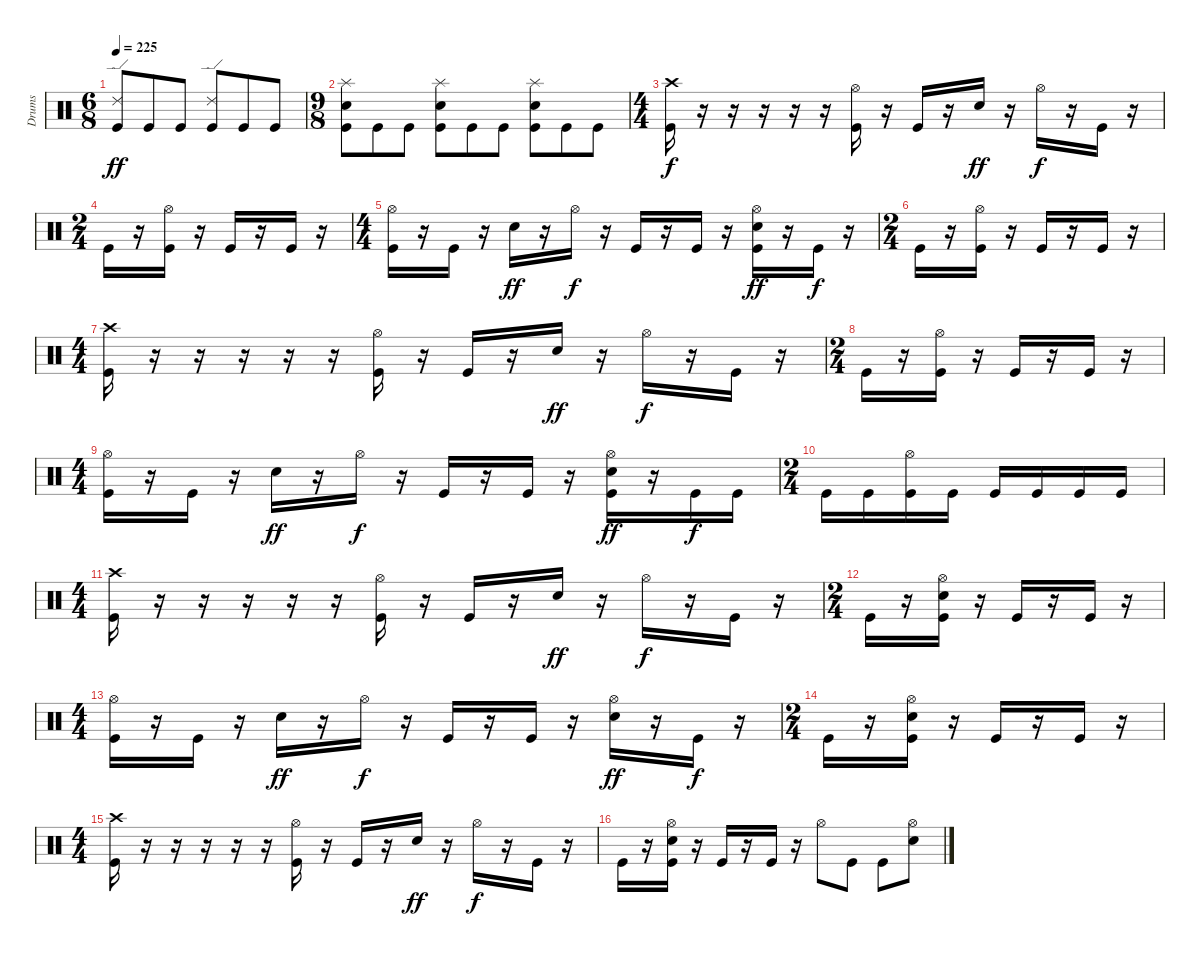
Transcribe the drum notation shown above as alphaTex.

\track ("Drums" "Drums") {instrument percussion}
\staff {score}
\articulation defaults
\ts (6 8)
\tempo 225
\clef neutral
\ks c
("Kick (hit)" "Ride (edge) 2").8{dy ff} "Kick (hit)".8 "Kick (hit)".8 ("Kick (hit)" "Ride (edge) 2").8 "Kick (hit)".8 "Kick (hit)".8 |
\ts (9 8)
("Kick (hit)" "Snare (hit) 2" "Splash (hit)").8 "Kick (hit)".8 "Kick (hit)".8 ("Kick (hit)" "Snare (hit) 2" "Splash (hit)").8 "Kick (hit)".8 "Kick (hit)".8 ("Kick (hit)" "Snare (hit) 2" "Splash (hit)").8 "Kick (hit)".8 "Kick (hit)".8 |
\ts (4 4)
("Kick (hit)" "Crash high (hit)").16{dy f} r.16 r.16 r.16 r.16 r.16 ("Kick (hit)" "Hi-Hat (open)").16 r.16 "Kick (hit)".16 r.16 "Snare (hit) 2".16{dy ff} r.16 "Hi-Hat (open)".16{dy f} r.16 "Kick (hit)".16 r.16 |
\ts (2 4)
"Kick (hit)".16 r.16 ("Kick (hit)" "Hi-Hat (open)").16 r.16 "Kick (hit)".16 r.16 "Kick (hit)".16 r.16 |
\ts (4 4)
("Kick (hit)" "Hi-Hat (open)").16 r.16 "Kick (hit)".16 r.16 "Snare (hit) 2".16{dy ff} r.16 "Hi-Hat (open)".16{dy f} r.16 "Kick (hit)".16 r.16 "Kick (hit)".16 r.16 ("Kick (hit)" "Snare (hit) 2" "Hi-Hat (open)").16{dy ff} r.16 "Kick (hit)".16{dy f} r.16 |
\ts (2 4)
"Kick (hit)".16 r.16 ("Kick (hit)" "Hi-Hat (open)").16 r.16 "Kick (hit)".16 r.16 "Kick (hit)".16 r.16 |
\ts (4 4)
("Kick (hit)" "Crash high (hit)").16 r.16 r.16 r.16 r.16 r.16 ("Kick (hit)" "Hi-Hat (open)").16 r.16 "Kick (hit)".16 r.16 "Snare (hit) 2".16{dy ff} r.16 "Hi-Hat (open)".16{dy f} r.16 "Kick (hit)".16 r.16 |
\ts (2 4)
"Kick (hit)".16 r.16 ("Kick (hit)" "Hi-Hat (open)").16 r.16 "Kick (hit)".16 r.16 "Kick (hit)".16 r.16 |
\ts (4 4)
("Kick (hit)" "Hi-Hat (open)").16 r.16 "Kick (hit)".16 r.16 "Snare (hit) 2".16{dy ff} r.16 "Hi-Hat (open)".16{dy f} r.16 "Kick (hit)".16 r.16 "Kick (hit)".16 r.16 ("Kick (hit)" "Snare (hit) 2" "Hi-Hat (open)").16{dy ff} r.16 "Kick (hit)".16{dy f} "Kick (hit)".16 |
\ts (2 4)
"Kick (hit)".16 "Kick (hit)".16 ("Kick (hit)" "Hi-Hat (open)").16 "Kick (hit)".16 "Kick (hit)".16 "Kick (hit)".16 "Kick (hit)".16 "Kick (hit)".16 |
\ts (4 4)
("Kick (hit)" "Crash high (hit)").16 r.16 r.16 r.16 r.16 r.16 ("Kick (hit)" "Hi-Hat (open)").16 r.16 "Kick (hit)".16 r.16 "Snare (hit) 2".16{dy ff} r.16 "Hi-Hat (open)".16{dy f} r.16 "Kick (hit)".16 r.16 |
\ts (2 4)
"Kick (hit)".16 r.16 ("Kick (hit)" "Snare (hit) 2" "Hi-Hat (open)").16 r.16 "Kick (hit)".16 r.16 "Kick (hit)".16 r.16 |
\ts (4 4)
("Kick (hit)" "Hi-Hat (open)").16 r.16 "Kick (hit)".16 r.16 "Snare (hit) 2".16{dy ff} r.16 "Hi-Hat (open)".16{dy f} r.16 "Kick (hit)".16 r.16 "Kick (hit)".16 r.16 ("Snare (hit) 2" "Hi-Hat (open)").16{dy ff} r.16 "Kick (hit)".16{dy f} r.16 |
\ts (2 4)
"Kick (hit)".16 r.16 ("Kick (hit)" "Snare (hit) 2" "Hi-Hat (open)").16 r.16 "Kick (hit)".16 r.16 "Kick (hit)".16 r.16 |
\ts (4 4)
("Kick (hit)" "Crash high (hit)").16 r.16 r.16 r.16 r.16 r.16 ("Kick (hit)" "Hi-Hat (open)").16 r.16 "Kick (hit)".16 r.16 "Snare (hit) 2".16{dy ff} r.16 "Hi-Hat (open)".16{dy f} r.16 "Kick (hit)".16 r.16 |
"Kick (hit)".16 r.16 ("Kick (hit)" "Snare (hit) 2" "Hi-Hat (open)").16 r.16 "Kick (hit)".16 r.16 "Kick (hit)".16 r.16 "Hi-Hat (open)".8 "Kick (hit)".8 "Kick (hit)".8 ("Snare (hit) 2" "Hi-Hat (open)").8
